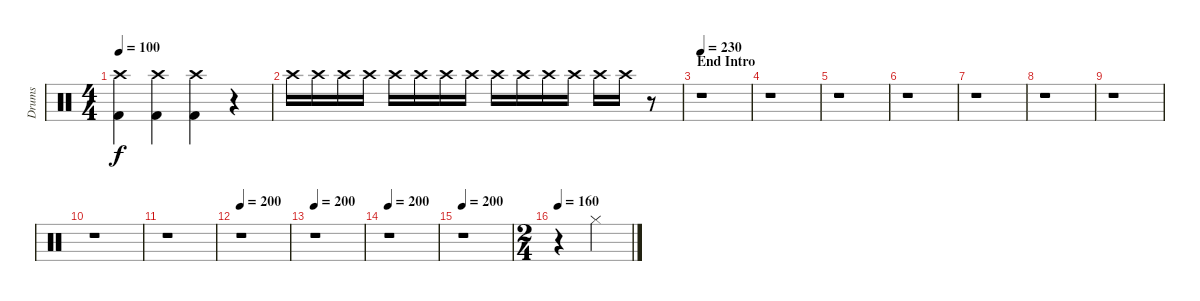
\track ("Drums" "Drums") {instrument percussion}
\staff {score}
\articulation defaults
\ts (4 4)
\tempo 100
\clef neutral
\ks c
("Kick (hit) 2" "Crash high (hit)").4{dy f} ("Kick (hit) 2" "Crash high (hit)").4 ("Kick (hit) 2" "Crash high (hit)").4 r.4 |
"Crash high (hit)".16 "Crash high (hit)".16 "Crash high (hit)".16 "Crash high (hit)".16 "Crash high (hit)".16 "Crash high (hit)".16 "Crash high (hit)".16 "Crash high (hit)".16 "Crash high (hit)".16 "Crash high (hit)".16 "Crash high (hit)".16 "Crash high (hit)".16 "Crash high (hit)".16 "Crash high (hit)".16 r.8 |
\section ("" "End Intro")
\tempo 230
r.1 |
r.1 |
r.1 |
r.1 |
r.1 |
r.1 |
r.1 |
r.1 |
r.1 |
\tempo 200
r.1 |
\tempo 200
r.1 |
\tempo 200
r.1 |
\tempo 200
r.1 |
\ts (2 4)
\tempo 160
r.4 "Hi-Hat (closed)".4
